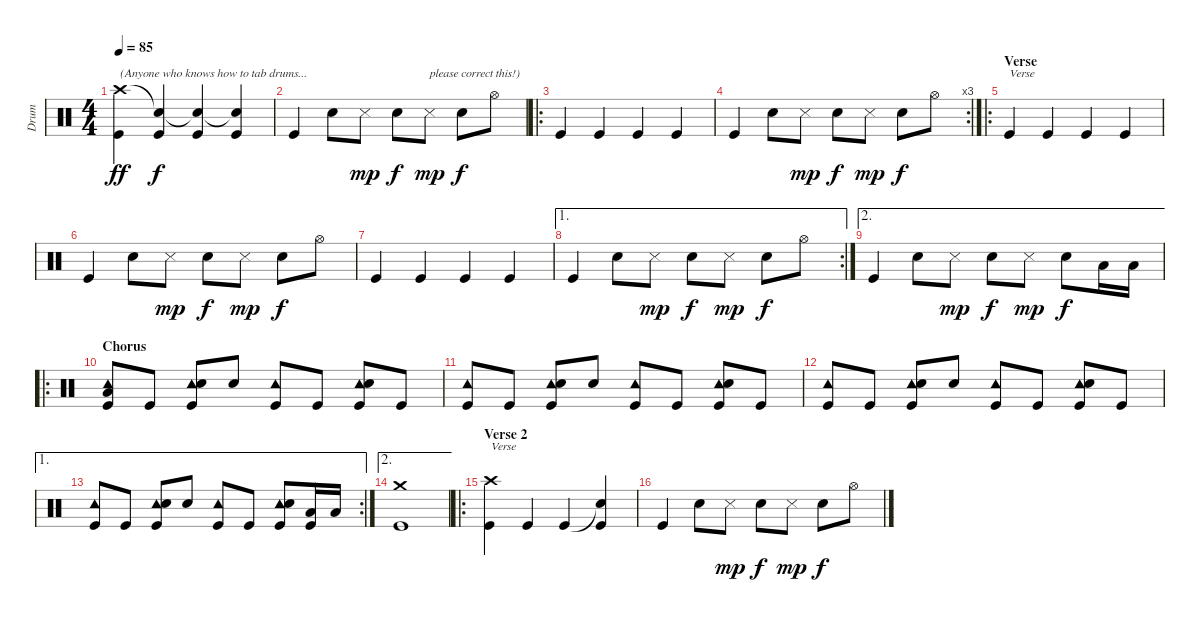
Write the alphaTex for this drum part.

\track ("Drum" "Drum") {instrument percussion}
\staff {score}
\articulation defaults
\ts (4 4)
\tempo 85
\clef neutral
\ks c
("Crash high (hit)" "Kick (hit)").4{txt "(Anyone who knows how to tab drums..." dy ff} ("Snare (hit)"{t} "Kick (hit)").4{dy f} ("Snare (hit)"{t} "Kick (hit)").4 ("Snare (hit)"{t} "Kick (hit)").4 |
"Kick (hit)".4 "Electric Snare (hit)".8 "Snare (side stick) 3".8{dy mp} "Electric Snare (hit)".8{dy f} "Snare (side stick) 3".8{txt "please correct this!)" dy mp} "Electric Snare (hit)".8{dy f} "Hi-Hat (open)".8 |
\ro "Kick (hit)".4 "Kick (hit)".4 "Kick (hit)".4 "Kick (hit)".4
|
\rc 3 "Kick (hit)".4 "Electric Snare (hit)".8 "Snare (side stick) 3".8{dy mp} "Electric Snare (hit)".8{dy f} "Snare (side stick) 3".8{dy mp} "Electric Snare (hit)".8{dy f} "Hi-Hat (open)".8
|
\ro
\section ("" "Verse")
"Kick (hit)".4{txt "Verse"} "Kick (hit)".4 "Kick (hit)".4 "Kick (hit)".4 |
"Kick (hit)".4 "Electric Snare (hit)".8 "Snare (side stick) 3".8{dy mp} "Electric Snare (hit)".8{dy f} "Snare (side stick) 3".8{dy mp} "Electric Snare (hit)".8{dy f} "Hi-Hat (open)".8 |
"Kick (hit)".4 "Kick (hit)".4 "Kick (hit)".4 "Kick (hit)".4 |
\ae 1
\rc 2 "Kick (hit)".4 "Electric Snare (hit)".8 "Snare (side stick) 3".8{dy mp} "Electric Snare (hit)".8{dy f} "Snare (side stick) 3".8{dy mp} "Electric Snare (hit)".8{dy f} "Hi-Hat (open)".8
|
\ae 2 "Kick (hit)".4 "Electric Snare (hit)".8 "Snare (side stick) 3".8{dy mp} "Electric Snare (hit)".8{dy f} "Snare (side stick) 3".8{dy mp} "Electric Snare (hit)".8{dy f} "Low Floor Tom (hit)".16 "Low Floor Tom (hit)".16
|
\ro
\section ("" "Chorus")
("Tambourine (hit)" "Low Floor Tom (hit)" "Kick (hit)").8 "Kick (hit)".8 ("Tambourine (hit)" "Snare (hit) 2" "Kick (hit)").8 "Snare (hit) 2".8 ("Tambourine (hit)" "Kick (hit)").8 "Kick (hit)".8 ("Tambourine (hit)" "Snare (hit) 2" "Kick (hit)").8 "Kick (hit)".8 |
("Tambourine (hit)" "Kick (hit)").8 "Kick (hit)".8 ("Tambourine (hit)" "Snare (hit) 2" "Kick (hit)").8 "Snare (hit) 2".8 ("Tambourine (hit)" "Kick (hit)").8 "Kick (hit)".8 ("Tambourine (hit)" "Snare (hit) 2" "Kick (hit)").8 "Kick (hit)".8 |
("Tambourine (hit)" "Kick (hit)").8 "Kick (hit)".8 ("Tambourine (hit)" "Snare (hit) 2" "Kick (hit)").8 "Snare (hit) 2".8 ("Tambourine (hit)" "Kick (hit)").8 "Kick (hit)".8 ("Tambourine (hit)" "Snare (hit) 2" "Kick (hit)").8 "Kick (hit)".8 |
\ae 1
\rc 2
("Tambourine (hit)" "Kick (hit)").8 "Kick (hit)".8 ("Tambourine (hit)" "Snare (hit) 2" "Kick (hit)").8 "Snare (hit) 2".8 ("Tambourine (hit)" "Kick (hit)").8 "Kick (hit)".8 ("Tambourine (hit)" "Snare (hit) 2" "Kick (hit)").8 ("Low Floor Tom (hit)" "Kick (hit)").16 "Low Floor Tom (hit)".16 |
\ae 2
("Crash medium (hit)" "Kick (hit)").1 |
\ro
\section ("" "Verse 2")
("Crash high (hit)" "Kick (hit)").4{txt "Verse"} "Kick (hit)".4 "Kick (hit)".4 ("Snare (hit)"{t} "Kick (hit)").4 |
"Kick (hit)".4 "Electric Snare (hit)".8 "Snare (side stick) 3".8{dy mp} "Electric Snare (hit)".8{dy f} "Snare (side stick) 3".8{dy mp} "Electric Snare (hit)".8{dy f} "Hi-Hat (open)".8
